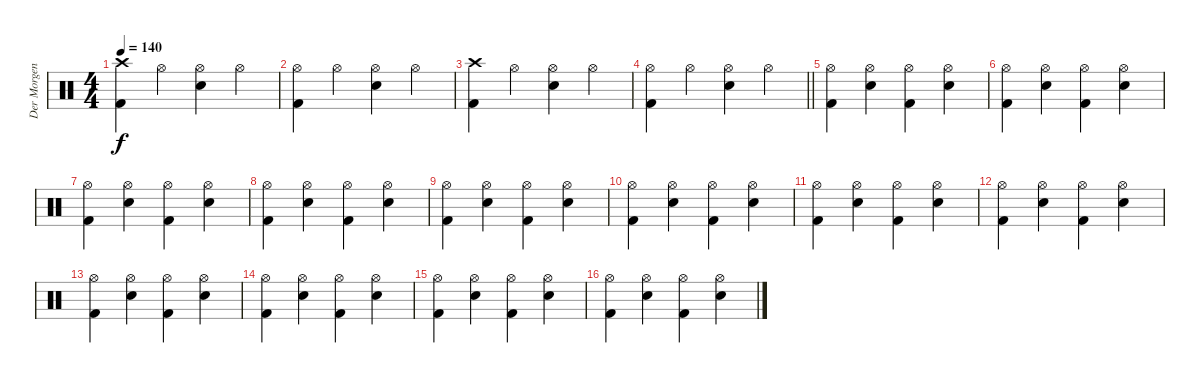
\track ("Der Morgenstern" "Der Morgen") {instrument percussion}
\staff {score}
\articulation defaults
\ts (4 4)
\tempo 140
\clef neutral
\ks c
("Crash high (hit)" "Kick (hit) 2").4{dy f} "Hi-Hat (open)".4 ("Hi-Hat (open)" "Electric Snare (hit)").4 "Hi-Hat (open)".4 |
("Hi-Hat (open)" "Kick (hit) 2").4 "Hi-Hat (open)".4 ("Hi-Hat (open)" "Electric Snare (hit)").4 "Hi-Hat (open)".4 |
("Crash high (hit)" "Kick (hit) 2").4 "Hi-Hat (open)".4 ("Hi-Hat (open)" "Electric Snare (hit)").4 "Hi-Hat (open)".4 |
\barLineRight lightlight
("Hi-Hat (open)" "Kick (hit) 2").4 "Hi-Hat (open)".4 ("Hi-Hat (open)" "Electric Snare (hit)").4 "Hi-Hat (open)".4 |
("Hi-Hat (open)" "Kick (hit) 2").4 ("Hi-Hat (open)" "Electric Snare (hit)").4 ("Hi-Hat (open)" "Kick (hit) 2").4 ("Hi-Hat (open)" "Electric Snare (hit)").4 |
("Hi-Hat (open)" "Kick (hit) 2").4 ("Hi-Hat (open)" "Electric Snare (hit)").4 ("Hi-Hat (open)" "Kick (hit) 2").4 ("Hi-Hat (open)" "Electric Snare (hit)").4 |
("Hi-Hat (open)" "Kick (hit) 2").4 ("Hi-Hat (open)" "Electric Snare (hit)").4 ("Hi-Hat (open)" "Kick (hit) 2").4 ("Hi-Hat (open)" "Electric Snare (hit)").4 |
("Hi-Hat (open)" "Kick (hit) 2").4 ("Hi-Hat (open)" "Electric Snare (hit)").4 ("Hi-Hat (open)" "Kick (hit) 2").4 ("Hi-Hat (open)" "Electric Snare (hit)").4 |
("Hi-Hat (open)" "Kick (hit) 2").4 ("Hi-Hat (open)" "Electric Snare (hit)").4 ("Hi-Hat (open)" "Kick (hit) 2").4 ("Hi-Hat (open)" "Electric Snare (hit)").4 |
("Hi-Hat (open)" "Kick (hit) 2").4 ("Hi-Hat (open)" "Electric Snare (hit)").4 ("Hi-Hat (open)" "Kick (hit) 2").4 ("Hi-Hat (open)" "Electric Snare (hit)").4 |
("Hi-Hat (open)" "Kick (hit) 2").4 ("Hi-Hat (open)" "Electric Snare (hit)").4 ("Hi-Hat (open)" "Kick (hit) 2").4 ("Hi-Hat (open)" "Electric Snare (hit)").4 |
("Hi-Hat (open)" "Kick (hit) 2").4 ("Hi-Hat (open)" "Electric Snare (hit)").4 ("Hi-Hat (open)" "Kick (hit) 2").4 ("Hi-Hat (open)" "Electric Snare (hit)").4 |
("Hi-Hat (open)" "Kick (hit) 2").4 ("Hi-Hat (open)" "Electric Snare (hit)").4 ("Hi-Hat (open)" "Kick (hit) 2").4 ("Hi-Hat (open)" "Electric Snare (hit)").4 |
("Hi-Hat (open)" "Kick (hit) 2").4 ("Hi-Hat (open)" "Electric Snare (hit)").4 ("Hi-Hat (open)" "Kick (hit) 2").4 ("Hi-Hat (open)" "Electric Snare (hit)").4 |
("Hi-Hat (open)" "Kick (hit) 2").4 ("Hi-Hat (open)" "Electric Snare (hit)").4 ("Hi-Hat (open)" "Kick (hit) 2").4 ("Hi-Hat (open)" "Electric Snare (hit)").4 |
("Hi-Hat (open)" "Kick (hit) 2").4 ("Hi-Hat (open)" "Electric Snare (hit)").4 ("Hi-Hat (open)" "Kick (hit) 2").4 ("Hi-Hat (open)" "Electric Snare (hit)").4
